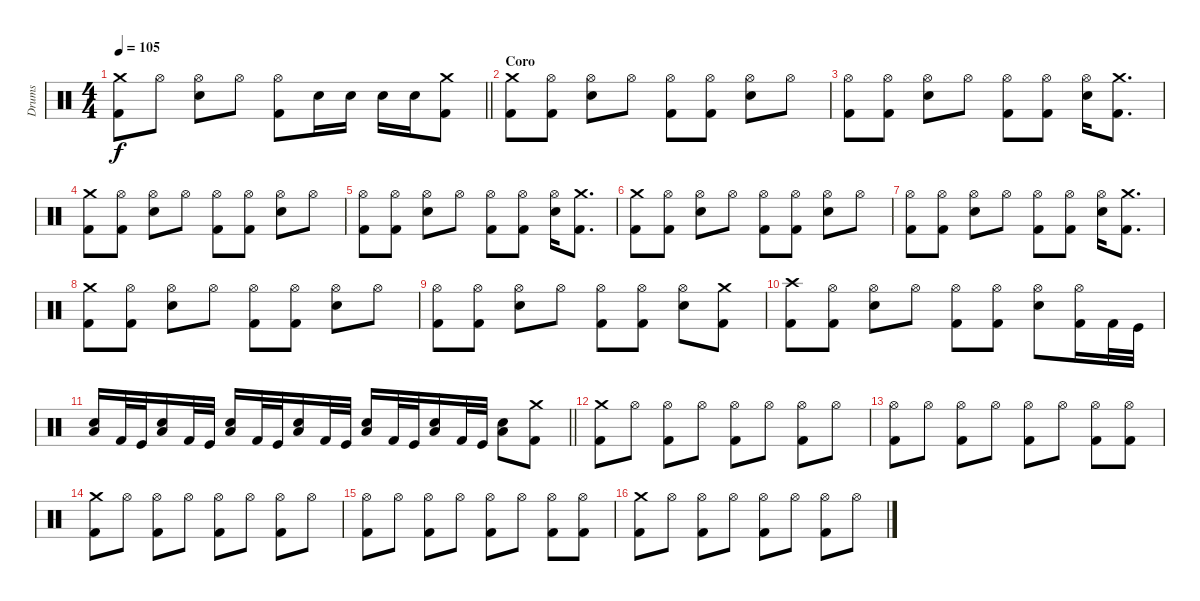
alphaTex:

\track ("Drums" "Drums") {instrument percussion}
\staff {score}
\articulation defaults
\ts (4 4)
\tempo 105
\clef neutral
\barLineRight lightlight
\ks c
("Crash medium (hit)" "Kick (hit) 2").8{dy f} "Hi-Hat (open)".8 ("Hi-Hat (open)" "Snare (hit) 2").8 "Hi-Hat (open)".8 ("Hi-Hat (open)" "Kick (hit) 2").8 "Snare (hit) 2".16 "Snare (hit) 2".16 "Snare (hit) 2".16 "Snare (hit) 2".16 ("Crash medium (hit)" "Kick (hit) 2").8 |
\section ("" "Coro")
("Crash medium (hit)" "Kick (hit) 2").8 ("Hi-Hat (open)" "Kick (hit) 2").8 ("Hi-Hat (open)" "Snare (hit) 2").8 "Hi-Hat (open)".8 ("Hi-Hat (open)" "Kick (hit) 2").8 ("Hi-Hat (open)" "Kick (hit) 2").8 ("Hi-Hat (open)" "Snare (hit) 2").8 "Hi-Hat (open)".8 |
("Hi-Hat (open)" "Kick (hit) 2").8 ("Hi-Hat (open)" "Kick (hit) 2").8 ("Hi-Hat (open)" "Snare (hit) 2").8 "Hi-Hat (open)".8 ("Hi-Hat (open)" "Kick (hit) 2").8 ("Hi-Hat (open)" "Kick (hit) 2").8 ("Hi-Hat (open)" "Snare (hit) 2").16 ("Crash medium (hit)" "Kick (hit) 2").8{d} |
("Crash medium (hit)" "Kick (hit) 2").8 ("Hi-Hat (open)" "Kick (hit) 2").8 ("Hi-Hat (open)" "Snare (hit) 2").8 "Hi-Hat (open)".8 ("Hi-Hat (open)" "Kick (hit) 2").8 ("Hi-Hat (open)" "Kick (hit) 2").8 ("Hi-Hat (open)" "Snare (hit) 2").8 "Hi-Hat (open)".8 |
("Hi-Hat (open)" "Kick (hit) 2").8 ("Hi-Hat (open)" "Kick (hit) 2").8 ("Hi-Hat (open)" "Snare (hit) 2").8 "Hi-Hat (open)".8 ("Hi-Hat (open)" "Kick (hit) 2").8 ("Hi-Hat (open)" "Kick (hit) 2").8 ("Hi-Hat (open)" "Snare (hit) 2").16 ("Crash medium (hit)" "Kick (hit) 2").8{d} |
("Crash medium (hit)" "Kick (hit) 2").8 ("Hi-Hat (open)" "Kick (hit) 2").8 ("Hi-Hat (open)" "Snare (hit) 2").8 "Hi-Hat (open)".8 ("Hi-Hat (open)" "Kick (hit) 2").8 ("Hi-Hat (open)" "Kick (hit) 2").8 ("Hi-Hat (open)" "Snare (hit) 2").8 "Hi-Hat (open)".8 |
("Hi-Hat (open)" "Kick (hit) 2").8 ("Hi-Hat (open)" "Kick (hit) 2").8 ("Hi-Hat (open)" "Snare (hit) 2").8 "Hi-Hat (open)".8 ("Hi-Hat (open)" "Kick (hit) 2").8 ("Hi-Hat (open)" "Kick (hit) 2").8 ("Hi-Hat (open)" "Snare (hit) 2").16 ("Crash medium (hit)" "Kick (hit) 2").8{d} |
("Crash medium (hit)" "Kick (hit) 2").8 ("Hi-Hat (open)" "Kick (hit) 2").8 ("Hi-Hat (open)" "Snare (hit) 2").8 "Hi-Hat (open)".8 ("Hi-Hat (open)" "Kick (hit) 2").8 ("Hi-Hat (open)" "Kick (hit) 2").8 ("Hi-Hat (open)" "Snare (hit) 2").8 "Hi-Hat (open)".8 |
("Hi-Hat (open)" "Kick (hit) 2").8 ("Hi-Hat (open)" "Kick (hit) 2").8 ("Hi-Hat (open)" "Snare (hit) 2").8 "Hi-Hat (open)".8 ("Hi-Hat (open)" "Kick (hit) 2").8 ("Hi-Hat (open)" "Kick (hit) 2").8 ("Hi-Hat (open)" "Snare (hit) 2").8 ("Crash medium (hit)" "Kick (hit) 2").8 |
("Crash high (hit)" "Kick (hit) 2").8 ("Hi-Hat (open)" "Kick (hit) 2").8 ("Hi-Hat (open)" "Snare (hit) 2").8 "Hi-Hat (open)".8 ("Hi-Hat (open)" "Kick (hit) 2").8 ("Hi-Hat (open)" "Kick (hit) 2").8 ("Hi-Hat (open)" "Snare (hit) 2").8 ("Hi-Hat (open)" "Kick (hit) 2").16 "Kick (hit) 2".32 "Kick (hit)".32 |
\barLineRight lightlight
("Low Floor Tom (hit)" "Snare (hit) 2").16 "Kick (hit) 2".32 "Kick (hit)".32 ("Low Floor Tom (hit)" "Snare (hit) 2").16 "Kick (hit) 2".32 "Kick (hit)".32 ("Low Floor Tom (hit)" "Snare (hit) 2").16 "Kick (hit) 2".32 "Kick (hit)".32 ("Low Floor Tom (hit)" "Snare (hit) 2").16 "Kick (hit) 2".32 "Kick (hit)".32 ("Low Floor Tom (hit)" "Snare (hit) 2").16 "Kick (hit) 2".32 "Kick (hit)".32 ("Low Floor Tom (hit)" "Snare (hit) 2").16 "Kick (hit) 2".32 "Kick (hit)".32 ("Low Floor Tom (hit)" "Snare (hit) 2").8 ("Crash medium (hit)" "Kick (hit) 2").8 |
("Crash medium (hit)" "Kick (hit) 2").8 "Hi-Hat (open)".8 ("Hi-Hat (open)" "Kick (hit) 2").8 "Hi-Hat (open)".8 ("Hi-Hat (open)" "Kick (hit) 2").8 "Hi-Hat (open)".8 ("Hi-Hat (open)" "Kick (hit) 2").8 "Hi-Hat (open)".8 |
("Hi-Hat (open)" "Kick (hit) 2").8 "Hi-Hat (open)".8 ("Hi-Hat (open)" "Kick (hit) 2").8 "Hi-Hat (open)".8 ("Hi-Hat (open)" "Kick (hit) 2").8 "Hi-Hat (open)".8 ("Hi-Hat (open)" "Kick (hit) 2").8 ("Hi-Hat (open)" "Kick (hit) 2").8 |
("Crash medium (hit)" "Kick (hit) 2").8 "Hi-Hat (open)".8 ("Hi-Hat (open)" "Kick (hit) 2").8 "Hi-Hat (open)".8 ("Hi-Hat (open)" "Kick (hit) 2").8 "Hi-Hat (open)".8 ("Hi-Hat (open)" "Kick (hit) 2").8 "Hi-Hat (open)".8 |
("Hi-Hat (open)" "Kick (hit) 2").8 "Hi-Hat (open)".8 ("Hi-Hat (open)" "Kick (hit) 2").8 "Hi-Hat (open)".8 ("Hi-Hat (open)" "Kick (hit) 2").8 "Hi-Hat (open)".8 ("Hi-Hat (open)" "Kick (hit) 2").8 ("Hi-Hat (open)" "Kick (hit) 2").8 |
("Crash medium (hit)" "Kick (hit) 2").8 "Hi-Hat (open)".8 ("Hi-Hat (open)" "Kick (hit) 2").8 "Hi-Hat (open)".8 ("Hi-Hat (open)" "Kick (hit) 2").8 "Hi-Hat (open)".8 ("Hi-Hat (open)" "Kick (hit) 2").8 "Hi-Hat (open)".8
